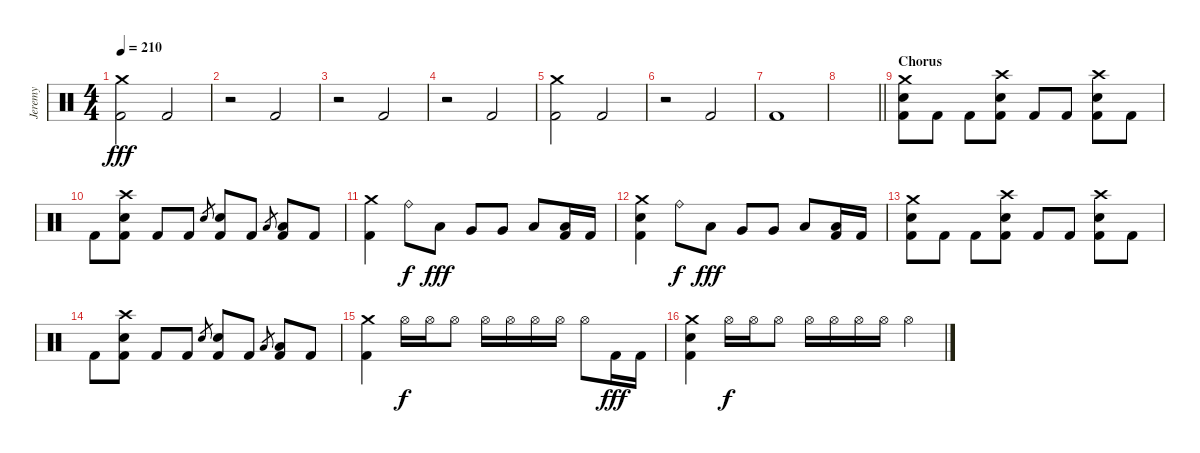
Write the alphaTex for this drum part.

\track ("Jeremy" "Jeremy") {instrument percussion}
\staff {score}
\articulation defaults
\ts (4 4)
\tempo 210
\clef neutral
\ks c
("Crash medium (hit)" "Kick (hit) 2").2{dy fff} "Kick (hit) 2".2 |
r.2 "Kick (hit) 2".2 |
r.2 "Kick (hit) 2".2 |
r.2 "Kick (hit) 2".2 |
("Crash medium (hit)" "Kick (hit) 2").2 "Kick (hit) 2".2 |
r.2 "Kick (hit) 2".2 |
"Kick (hit) 2".1 |
\barLineRight lightlight
|
\section ("" "Chorus")
("Crash medium (hit)" "Electric Snare (hit)" "Kick (hit) 2").8 "Kick (hit) 2".8 "Kick (hit) 2".8 ("Crash high (hit)" "Electric Snare (hit)" "Kick (hit) 2").8 "Kick (hit) 2".8 "Kick (hit) 2".8 ("Crash high (hit)" "Electric Snare (hit)" "Kick (hit) 2").8 "Kick (hit) 2".8 |
"Kick (hit) 2".8 ("Crash high (hit)" "Electric Snare (hit)" "Kick (hit) 2").8 "Kick (hit) 2".8 "Kick (hit) 2".8 "Electric Snare (hit)".8{gr} ("Electric Snare (hit)" "Kick (hit) 2").8 "Kick (hit) 2".8 "Low Tom (hit)".8{gr} ("Low Tom (hit)" "Kick (hit) 2").8 "Kick (hit) 2".8 |
("Crash medium (hit)" "Kick (hit) 2").4 "Ride (bell)".8{dy f} "Low Tom (hit)".8{dy fff} "Very Low Tom (hit)".8 "Very Low Tom (hit)".8 "Low Floor Tom (hit)".8 ("Low Floor Tom (hit)" "Kick (hit) 2").16 "Kick (hit) 2".16 |
("Crash medium (hit)" "Electric Snare (hit)" "Kick (hit) 2").4 "Ride (bell)".8{dy f} "Low Tom (hit)".8{dy fff} "Very Low Tom (hit)".8 "Very Low Tom (hit)".8 "Low Floor Tom (hit)".8 ("Low Floor Tom (hit)" "Kick (hit) 2").16 "Kick (hit) 2".16 |
("Crash medium (hit)" "Electric Snare (hit)" "Kick (hit) 2").8 "Kick (hit) 2".8 "Kick (hit) 2".8 ("Crash high (hit)" "Electric Snare (hit)" "Kick (hit) 2").8 "Kick (hit) 2".8 "Kick (hit) 2".8 ("Crash high (hit)" "Electric Snare (hit)" "Kick (hit) 2").8 "Kick (hit) 2".8 |
"Kick (hit) 2".8 ("Crash high (hit)" "Electric Snare (hit)" "Kick (hit) 2").8 "Kick (hit) 2".8 "Kick (hit) 2".8 "Electric Snare (hit)".8{gr} ("Electric Snare (hit)" "Kick (hit) 2").8 "Kick (hit) 2".8 "Low Tom (hit)".8{gr} ("Low Tom (hit)" "Kick (hit) 2").8 "Kick (hit) 2".8 |
("Crash medium (hit)" "Kick (hit) 2").4 "Hi-Hat (open)".16{dy f} "Hi-Hat (open)".16 "Hi-Hat (open)".8 "Hi-Hat (open)".16 "Hi-Hat (open)".16 "Hi-Hat (open)".16 "Hi-Hat (open)".16 "Hi-Hat (open)".8 "Kick (hit) 2".16{dy fff} "Kick (hit) 2".16 |
("Crash medium (hit)" "Electric Snare (hit)" "Kick (hit) 2").4 "Hi-Hat (open)".16{dy f} "Hi-Hat (open)".16 "Hi-Hat (open)".8 "Hi-Hat (open)".16 "Hi-Hat (open)".16 "Hi-Hat (open)".16 "Hi-Hat (open)".16 "Hi-Hat (open)".4
